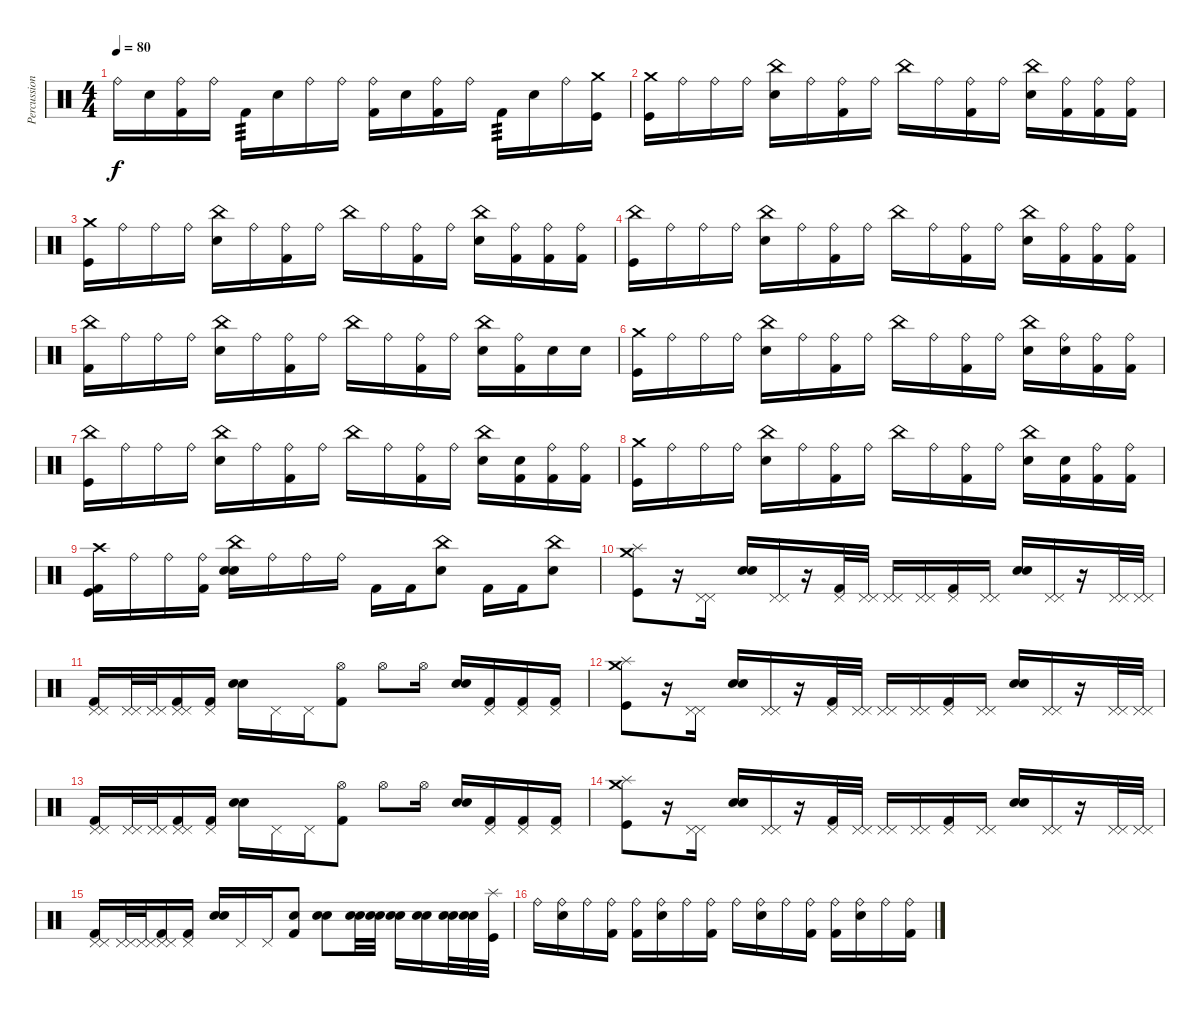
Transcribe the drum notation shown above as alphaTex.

\track ("Percussion" "Percussion") {instrument percussion}
\staff {score}
\articulation defaults
\ts (4 4)
\tempo 80
\clef neutral
\ks c "Ride (bell)".16{dy f} "Electric Snare (hit)".16
("Ride (bell)" "Kick (hit) 2").16 "Ride (bell)".16 "Kick (hit) 2".16{tp 3} "Electric Snare (hit)".16 "Ride (bell)".16 "Ride (bell)".16 ("Ride (bell)" "Kick (hit) 2").16 "Electric Snare (hit)".16 ("Ride (bell)" "Kick (hit) 2").16 "Ride (bell)".16 "Kick (hit) 2".16{tp 3} "Electric Snare (hit)".16 "Ride (bell)".16 ("Crash medium (hit)" "Kick (hit)").16 |
("Crash medium (hit)" "Kick (hit)").16 "Ride (bell)".16 "Ride (bell)".16 "Ride (bell)".16 ("China (hit)" "Electric Snare (hit)").16 "Ride (bell)".16 ("Kick (hit) 2" "Ride (bell)").16 "Ride (bell)".16 "China (hit)".16 "Ride (bell)".16 ("Kick (hit) 2" "Ride (bell)").16 "Ride (bell)".16 ("China (hit)" "Electric Snare (hit)").16 ("Kick (hit) 2" "Ride (bell)").16 ("Kick (hit) 2" "Ride (bell)").16 ("Kick (hit) 2" "Ride (bell)").16 |
("Crash medium (hit)" "Kick (hit)").16 "Ride (bell)".16 "Ride (bell)".16 "Ride (bell)".16 ("China (hit)" "Electric Snare (hit)").16 "Ride (bell)".16 ("Kick (hit) 2" "Ride (bell)").16 "Ride (bell)".16 "China (hit)".16 "Ride (bell)".16 ("Kick (hit) 2" "Ride (bell)").16 "Ride (bell)".16 ("China (hit)" "Electric Snare (hit)").16 ("Kick (hit) 2" "Ride (bell)").16 ("Kick (hit) 2" "Ride (bell)").16 ("Kick (hit) 2" "Ride (bell)").16 |
("China (hit)" "Kick (hit)").16 "Ride (bell)".16 "Ride (bell)".16 "Ride (bell)".16 ("China (hit)" "Electric Snare (hit)").16 "Ride (bell)".16 ("Kick (hit) 2" "Ride (bell)").16 "Ride (bell)".16 "China (hit)".16 "Ride (bell)".16 ("Kick (hit) 2" "Ride (bell)").16 "Ride (bell)".16 ("China (hit)" "Electric Snare (hit)").16 ("Kick (hit) 2" "Ride (bell)").16 ("Kick (hit) 2" "Ride (bell)").16 ("Kick (hit) 2" "Ride (bell)").16 |
("Kick (hit) 2" "China (hit)").16 "Ride (bell)".16 "Ride (bell)".16 "Ride (bell)".16 ("China (hit)" "Electric Snare (hit)").16 "Ride (bell)".16 ("Kick (hit) 2" "Ride (bell)").16 "Ride (bell)".16 "China (hit)".16 "Ride (bell)".16 ("Kick (hit) 2" "Ride (bell)").16 "Ride (bell)".16 ("China (hit)" "Electric Snare (hit)").16 ("Kick (hit) 2" "Ride (bell)").16 "Electric Snare (hit)".16 "Electric Snare (hit)".16 |
("Crash medium (hit)" "Kick (hit)").16 "Ride (bell)".16 "Ride (bell)".16 "Ride (bell)".16 ("China (hit)" "Electric Snare (hit)").16 "Ride (bell)".16 ("Kick (hit) 2" "Ride (bell)").16 "Ride (bell)".16 "China (hit)".16 "Ride (bell)".16 ("Kick (hit) 2" "Ride (bell)").16 "Ride (bell)".16 ("China (hit)" "Electric Snare (hit)").16 ("Ride (bell)" "Electric Snare (hit)").16 ("Kick (hit) 2" "Ride (bell)").16 ("Kick (hit) 2" "Ride (bell)").16 |
("China (hit)" "Kick (hit)").16 "Ride (bell)".16 "Ride (bell)".16 "Ride (bell)".16 ("China (hit)" "Electric Snare (hit)").16 "Ride (bell)".16 ("Kick (hit) 2" "Ride (bell)").16 "Ride (bell)".16 "China (hit)".16 "Ride (bell)".16 ("Kick (hit) 2" "Ride (bell)").16 "Ride (bell)".16 ("China (hit)" "Electric Snare (hit)").16 ("Kick (hit) 2" "Electric Snare (hit)").16 ("Kick (hit) 2" "Ride (bell)").16 ("Kick (hit) 2" "Ride (bell)").16 |
("Crash medium (hit)" "Kick (hit)").16 "Ride (bell)".16 "Ride (bell)".16 "Ride (bell)".16 ("China (hit)" "Electric Snare (hit)").16 "Ride (bell)".16 ("Kick (hit) 2" "Ride (bell)").16 "Ride (bell)".16 "China (hit)".16 "Ride (bell)".16 ("Kick (hit) 2" "Ride (bell)").16 "Ride (bell)".16 ("China (hit)" "Electric Snare (hit)").16 ("Kick (hit) 2" "Electric Snare (hit)").16 ("Kick (hit) 2" "Ride (bell)").16 ("Kick (hit) 2" "Ride (bell)").16 |
("Crash high (hit)" "Kick (hit)" "Kick (hit) 2").16 "Ride (bell)".16 "Ride (bell)".16 ("Ride (bell)" "Kick (hit) 2").16 ("Electric Snare (hit)" "China (hit)" "Electric Snare (hit)").16 "Ride (bell)".16 "Ride (bell)".16 "Ride (bell)".16 "Kick (hit) 2".16 "Kick (hit) 2".16 ("Electric Snare (hit)" "China (hit)").8 "Kick (hit) 2".16 "Kick (hit) 2".16 ("Electric Snare (hit)" "China (hit)").8 |
("Splash (hit)" "Kick (hit)" "Crash medium (hit)").8 r.16 ("Pedal Hi-Hat (hit)" "Pedal Hi-Hat (hit)").16 ("Electric Snare (hit)" "Electric Snare (hit)").16 ("Pedal Hi-Hat (hit)" "Pedal Hi-Hat (hit)").16 r.16 ("Kick (hit) 2" "Pedal Hi-Hat (hit)").32 ("Pedal Hi-Hat (hit)" "Pedal Hi-Hat (hit)").32 ("Pedal Hi-Hat (hit)" "Pedal Hi-Hat (hit)").16 ("Pedal Hi-Hat (hit)" "Pedal Hi-Hat (hit)").16 ("Kick (hit) 2" "Pedal Hi-Hat (hit)").16 ("Pedal Hi-Hat (hit)" "Pedal Hi-Hat (hit)").16 ("Electric Snare (hit)" "Electric Snare (hit)").16 ("Pedal Hi-Hat (hit)" "Pedal Hi-Hat (hit)").16 r.16 ("Pedal Hi-Hat (hit)" "Pedal Hi-Hat (hit)").32 ("Pedal Hi-Hat (hit)" "Pedal Hi-Hat (hit)").32 |
("Pedal Hi-Hat (hit)" "Pedal Hi-Hat (hit)" "Kick (hit) 2").16 ("Pedal Hi-Hat (hit)" "Pedal Hi-Hat (hit)").32 ("Pedal Hi-Hat (hit)" "Pedal Hi-Hat (hit)").32 ("Pedal Hi-Hat (hit)" "Pedal Hi-Hat (hit)" "Kick (hit) 2").16 ("Pedal Hi-Hat (hit)" "Kick (hit) 2").16 ("Electric Snare (hit)" "Electric Snare (hit)").16 "Pedal Hi-Hat (hit)".16 "Pedal Hi-Hat (hit)".16 ("Kick (hit) 2" "Hi-Hat (open)").8 "Hi-Hat (open)".8 "Hi-Hat (open)".16 ("Electric Snare (hit)" "Electric Snare (hit)").16 ("Pedal Hi-Hat (hit)" "Kick (hit) 2").16 ("Pedal Hi-Hat (hit)" "Kick (hit) 2").16 ("Pedal Hi-Hat (hit)" "Kick (hit) 2").16 |
("Splash (hit)" "Kick (hit)" "Crash medium (hit)").8 r.16 ("Pedal Hi-Hat (hit)" "Pedal Hi-Hat (hit)").16 ("Electric Snare (hit)" "Electric Snare (hit)").16 ("Pedal Hi-Hat (hit)" "Pedal Hi-Hat (hit)").16 r.16 ("Kick (hit) 2" "Pedal Hi-Hat (hit)").32 ("Pedal Hi-Hat (hit)" "Pedal Hi-Hat (hit)").32 ("Pedal Hi-Hat (hit)" "Pedal Hi-Hat (hit)").16 ("Pedal Hi-Hat (hit)" "Pedal Hi-Hat (hit)").16 ("Kick (hit) 2" "Pedal Hi-Hat (hit)").16 ("Pedal Hi-Hat (hit)" "Pedal Hi-Hat (hit)").16 ("Electric Snare (hit)" "Electric Snare (hit)").16 ("Pedal Hi-Hat (hit)" "Pedal Hi-Hat (hit)").16 r.16 ("Pedal Hi-Hat (hit)" "Pedal Hi-Hat (hit)").32 ("Pedal Hi-Hat (hit)" "Pedal Hi-Hat (hit)").32 |
("Pedal Hi-Hat (hit)" "Pedal Hi-Hat (hit)" "Kick (hit) 2").16 ("Pedal Hi-Hat (hit)" "Pedal Hi-Hat (hit)").32 ("Pedal Hi-Hat (hit)" "Pedal Hi-Hat (hit)").32 ("Pedal Hi-Hat (hit)" "Pedal Hi-Hat (hit)" "Kick (hit) 2").16 ("Pedal Hi-Hat (hit)" "Kick (hit) 2").16 ("Electric Snare (hit)" "Electric Snare (hit)").16 "Pedal Hi-Hat (hit)".16 "Pedal Hi-Hat (hit)".16 ("Kick (hit) 2" "Hi-Hat (open)").8 "Hi-Hat (open)".8 "Hi-Hat (open)".16 ("Electric Snare (hit)" "Electric Snare (hit)").16 ("Pedal Hi-Hat (hit)" "Kick (hit) 2").16 ("Pedal Hi-Hat (hit)" "Kick (hit) 2").16 ("Pedal Hi-Hat (hit)" "Kick (hit) 2").16 |
("Splash (hit)" "Kick (hit)" "Crash medium (hit)").8 r.16 ("Pedal Hi-Hat (hit)" "Pedal Hi-Hat (hit)").16 ("Electric Snare (hit)" "Electric Snare (hit)").16 ("Pedal Hi-Hat (hit)" "Pedal Hi-Hat (hit)").16 r.16 ("Kick (hit) 2" "Pedal Hi-Hat (hit)").32 ("Pedal Hi-Hat (hit)" "Pedal Hi-Hat (hit)").32 ("Pedal Hi-Hat (hit)" "Pedal Hi-Hat (hit)").16 ("Pedal Hi-Hat (hit)" "Pedal Hi-Hat (hit)").16 ("Kick (hit) 2" "Pedal Hi-Hat (hit)").16 ("Pedal Hi-Hat (hit)" "Pedal Hi-Hat (hit)").16 ("Electric Snare (hit)" "Electric Snare (hit)").16 ("Pedal Hi-Hat (hit)" "Pedal Hi-Hat (hit)").16 r.16 ("Pedal Hi-Hat (hit)" "Pedal Hi-Hat (hit)").32 ("Pedal Hi-Hat (hit)" "Pedal Hi-Hat (hit)").32 |
("Pedal Hi-Hat (hit)" "Pedal Hi-Hat (hit)" "Kick (hit) 2").16 ("Pedal Hi-Hat (hit)" "Pedal Hi-Hat (hit)").32 ("Pedal Hi-Hat (hit)" "Pedal Hi-Hat (hit)").32 ("Pedal Hi-Hat (hit)" "Pedal Hi-Hat (hit)" "Kick (hit) 2").16 ("Pedal Hi-Hat (hit)" "Kick (hit) 2").16 ("Electric Snare (hit)" "Electric Snare (hit)").16 "Pedal Hi-Hat (hit)".16 "Pedal Hi-Hat (hit)".16 ("Kick (hit) 2" "Electric Snare (hit)").8 ("Electric Snare (hit)" "Electric Snare (hit)").8 ("Electric Snare (hit)" "Electric Snare (hit)").32 ("Electric Snare (hit)" "Electric Snare (hit)").32 ("Electric Snare (hit)" "Electric Snare (hit)").16 ("Electric Snare (hit)" "Electric Snare (hit)").16 ("Electric Snare (hit)" "Electric Snare (hit)").32 ("Electric Snare (hit)" "Electric Snare (hit)").32 ("Splash (hit)" "Kick (hit)").32 |
"Ride (bell)".16 ("Electric Snare (hit)" "Ride (bell)").16 "Ride (bell)".16 ("Kick (hit) 2" "Ride (bell)").16 ("Kick (hit) 2" "Ride (bell)").16 ("Electric Snare (hit)" "Ride (bell)").16 "Ride (bell)".16 ("Kick (hit) 2" "Ride (bell)").16 "Ride (bell)".16 ("Electric Snare (hit)" "Ride (bell)").16 "Ride (bell)".16 ("Kick (hit) 2" "Ride (bell)").16 ("Kick (hit) 2" "Ride (bell)").16 ("Electric Snare (hit)" "Ride (bell)").16 "Ride (bell)".16 ("Kick (hit) 2" "Ride (bell)").16
